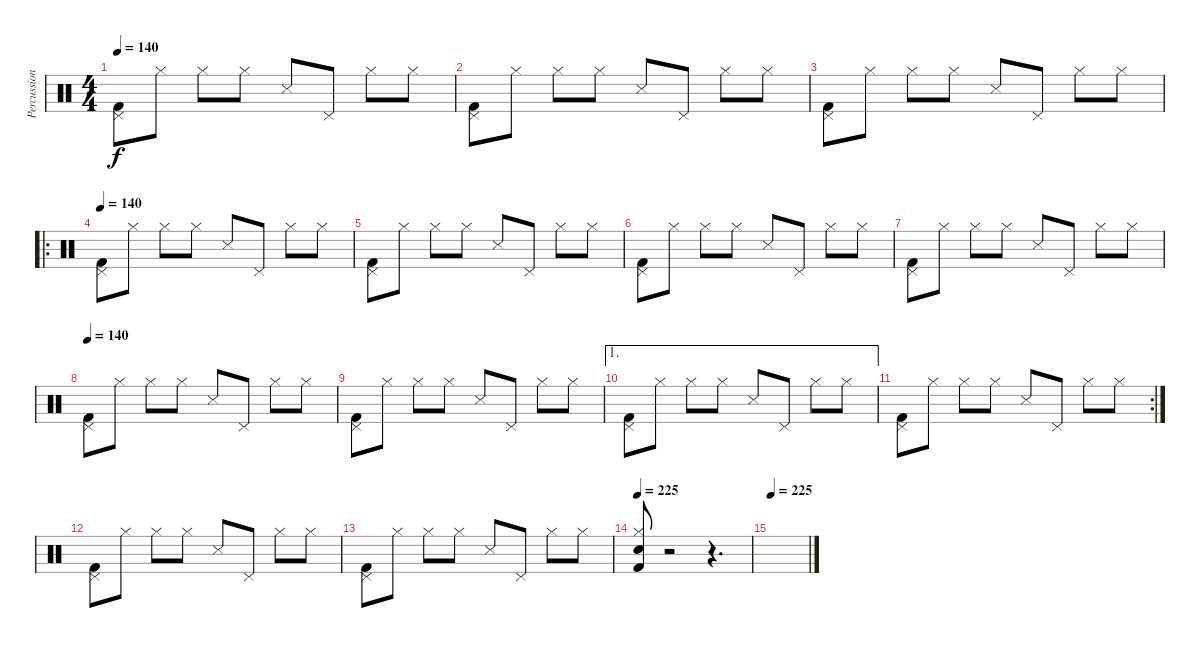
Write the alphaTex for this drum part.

\track ("Percussion" "Percussion") {instrument percussion}
\staff {score}
\articulation defaults
\ts (4 4)
\tempo 140
\clef neutral
\ks c
("Pedal Hi-Hat (hit)" "Kick (hit) 2").8{dy f volume 9} "Hi-Hat (closed)".8 "Hi-Hat (closed)".8 "Hi-Hat (closed)".8 "Snare (side stick) 3".8{volume 13} "Pedal Hi-Hat (hit)".8{volume 9} "Hi-Hat (closed)".8 "Hi-Hat (closed)".8 |
("Pedal Hi-Hat (hit)" "Kick (hit) 2").8{volume 9} "Hi-Hat (closed)".8 "Hi-Hat (closed)".8 "Hi-Hat (closed)".8 "Snare (side stick) 3".8{volume 13} "Pedal Hi-Hat (hit)".8{volume 9} "Hi-Hat (closed)".8 "Hi-Hat (closed)".8 |
("Pedal Hi-Hat (hit)" "Kick (hit) 2").8{volume 9} "Hi-Hat (closed)".8 "Hi-Hat (closed)".8 "Hi-Hat (closed)".8 "Snare (side stick) 3".8{volume 13} "Pedal Hi-Hat (hit)".8{volume 9} "Hi-Hat (closed)".8 "Hi-Hat (closed)".8 |
\ro
\tempo 140
("Pedal Hi-Hat (hit)" "Kick (hit) 2").8{volume 9} "Hi-Hat (closed)".8 "Hi-Hat (closed)".8 "Hi-Hat (closed)".8 "Snare (side stick) 3".8{volume 13} "Pedal Hi-Hat (hit)".8{volume 9} "Hi-Hat (closed)".8 "Hi-Hat (closed)".8 |
("Pedal Hi-Hat (hit)" "Kick (hit) 2").8{volume 9} "Hi-Hat (closed)".8 "Hi-Hat (closed)".8 "Hi-Hat (closed)".8 "Snare (side stick) 3".8{volume 13} "Pedal Hi-Hat (hit)".8{volume 9} "Hi-Hat (closed)".8 "Hi-Hat (closed)".8 |
("Pedal Hi-Hat (hit)" "Kick (hit) 2").8{volume 9} "Hi-Hat (closed)".8 "Hi-Hat (closed)".8 "Hi-Hat (closed)".8 "Snare (side stick) 3".8{volume 13} "Pedal Hi-Hat (hit)".8{volume 9} "Hi-Hat (closed)".8 "Hi-Hat (closed)".8 |
("Pedal Hi-Hat (hit)" "Kick (hit) 2").8{volume 9} "Hi-Hat (closed)".8 "Hi-Hat (closed)".8 "Hi-Hat (closed)".8 "Snare (side stick) 3".8{volume 13} "Pedal Hi-Hat (hit)".8{volume 9} "Hi-Hat (closed)".8 "Hi-Hat (closed)".8 |
\tempo 140
("Pedal Hi-Hat (hit)" "Kick (hit) 2").8{volume 9} "Hi-Hat (closed)".8 "Hi-Hat (closed)".8 "Hi-Hat (closed)".8 "Snare (side stick) 3".8{volume 13} "Pedal Hi-Hat (hit)".8{volume 9} "Hi-Hat (closed)".8 "Hi-Hat (closed)".8 |
("Pedal Hi-Hat (hit)" "Kick (hit) 2").8{volume 9} "Hi-Hat (closed)".8 "Hi-Hat (closed)".8 "Hi-Hat (closed)".8 "Snare (side stick) 3".8{volume 13} "Pedal Hi-Hat (hit)".8{volume 9} "Hi-Hat (closed)".8 "Hi-Hat (closed)".8 |
\ae 1
("Pedal Hi-Hat (hit)" "Kick (hit) 2").8{volume 9} "Hi-Hat (closed)".8 "Hi-Hat (closed)".8 "Hi-Hat (closed)".8 "Snare (side stick) 3".8{volume 13} "Pedal Hi-Hat (hit)".8{volume 9} "Hi-Hat (closed)".8 "Hi-Hat (closed)".8 |
\rc 2
("Pedal Hi-Hat (hit)" "Kick (hit) 2").8{volume 9} "Hi-Hat (closed)".8 "Hi-Hat (closed)".8 "Hi-Hat (closed)".8 "Snare (side stick) 3".8{volume 13} "Pedal Hi-Hat (hit)".8{volume 9} "Hi-Hat (closed)".8 "Hi-Hat (closed)".8 |
("Pedal Hi-Hat (hit)" "Kick (hit) 2").8{volume 9} "Hi-Hat (closed)".8 "Hi-Hat (closed)".8 "Hi-Hat (closed)".8 "Snare (side stick) 3".8{volume 13} "Pedal Hi-Hat (hit)".8{volume 9} "Hi-Hat (closed)".8 "Hi-Hat (closed)".8 |
("Pedal Hi-Hat (hit)" "Kick (hit) 2").8{volume 9} "Hi-Hat (closed)".8 "Hi-Hat (closed)".8 "Hi-Hat (closed)".8 "Snare (side stick) 3".8{volume 13} "Pedal Hi-Hat (hit)".8{volume 9} "Hi-Hat (closed)".8 "Hi-Hat (closed)".8 |
\tempo 225
("Hi-Hat (closed)" "Electric Snare (hit)" "Kick (hit) 2").8{volume 13} r.2 r.4{d} |
\tempo 225
